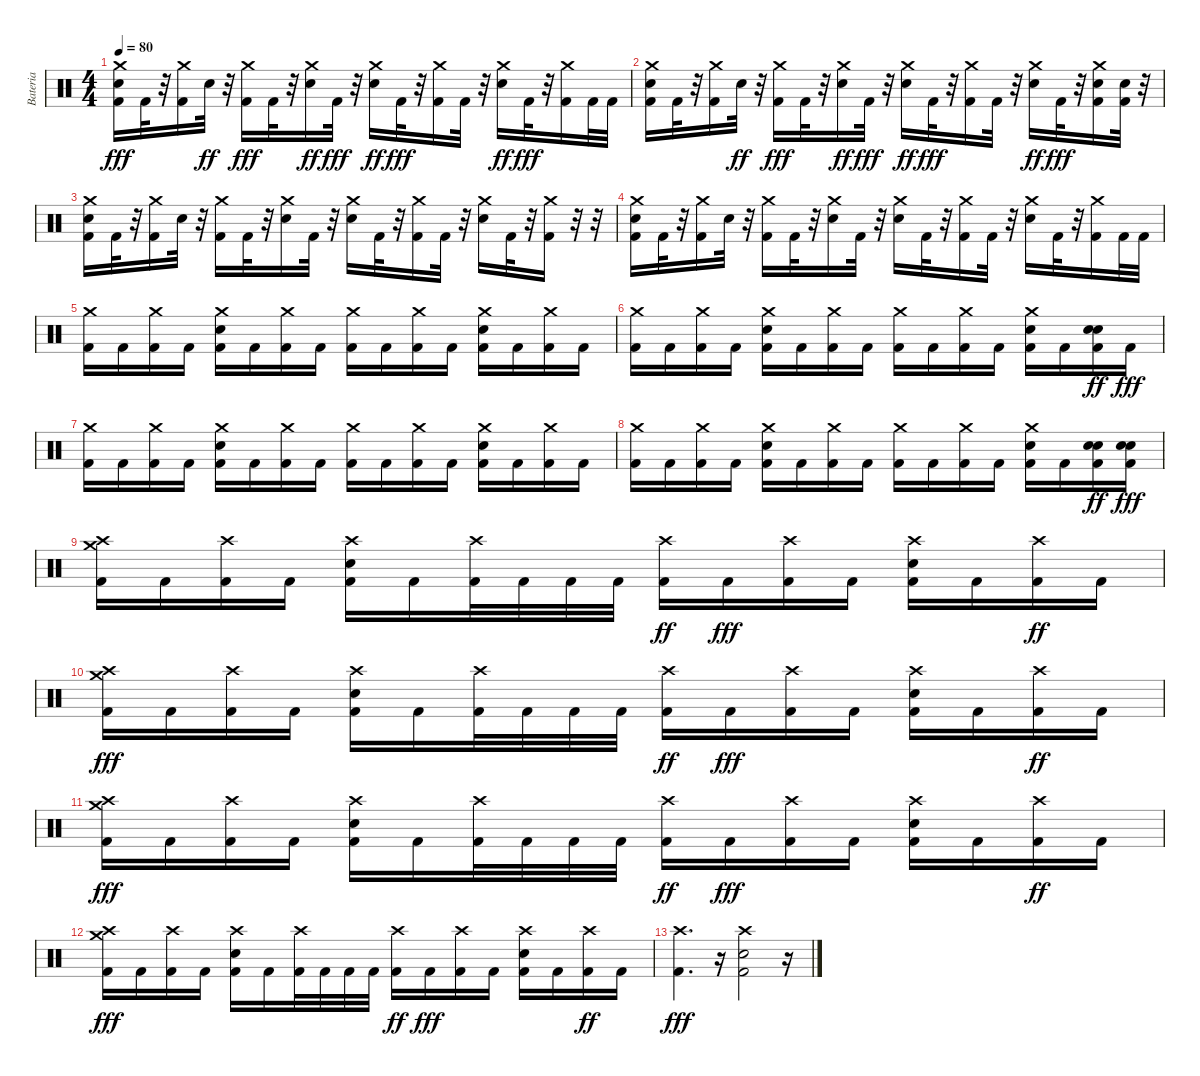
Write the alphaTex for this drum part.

\track ("Bateria" "Bateria") {instrument percussion}
\staff {score}
\articulation defaults
\ts (4 4)
\tempo 80
\clef neutral
\ks c
("Crash medium (hit)" "Electric Snare (hit)" "Kick (hit) 2").16{dy fff} "Kick (hit) 2".32 r.32 ("Crash medium (hit)" "Kick (hit) 2").16 "Electric Snare (hit)".32{dy ff} r.32 ("Crash medium (hit)" "Kick (hit) 2").16{dy fff} "Kick (hit) 2".32 r.32 ("Crash medium (hit)" "Electric Snare (hit)").16{dy ff} "Kick (hit) 2".32{dy fff} r.32 ("Crash medium (hit)" "Electric Snare (hit)").16{dy ff} "Kick (hit) 2".32{dy fff} r.32 ("Crash medium (hit)" "Kick (hit) 2").16 "Kick (hit) 2".32 r.32 ("Crash medium (hit)" "Electric Snare (hit)").16{dy ff} "Kick (hit) 2".32{dy fff} r.32 ("Crash medium (hit)" "Kick (hit) 2").16 "Kick (hit) 2".32 "Kick (hit) 2".32 |
("Crash medium (hit)" "Electric Snare (hit)" "Kick (hit) 2").16 "Kick (hit) 2".32 r.32 ("Crash medium (hit)" "Kick (hit) 2").16 "Electric Snare (hit)".32{dy ff} r.32 ("Crash medium (hit)" "Kick (hit) 2").16{dy fff} "Kick (hit) 2".32 r.32 ("Crash medium (hit)" "Electric Snare (hit)").16{dy ff} "Kick (hit) 2".32{dy fff} r.32 ("Crash medium (hit)" "Electric Snare (hit)").16{dy ff} "Kick (hit) 2".32{dy fff} r.32 ("Crash medium (hit)" "Kick (hit) 2").16 "Kick (hit) 2".32 r.32 ("Crash medium (hit)" "Electric Snare (hit)").16{dy ff} "Kick (hit) 2".32{dy fff} r.32 ("Crash medium (hit)" "Electric Snare (hit)" "Kick (hit) 2").16 ("Electric Snare (hit)" "Kick (hit) 2").32 r.32 |
("Crash medium (hit)" "Electric Snare (hit)" "Kick (hit) 2").16 "Kick (hit) 2".32 r.32 ("Crash medium (hit)" "Kick (hit) 2").16 "Electric Snare (hit)".32 r.32 ("Crash medium (hit)" "Kick (hit) 2").16 "Kick (hit) 2".32 r.32 ("Crash medium (hit)" "Electric Snare (hit)").16 "Kick (hit) 2".32 r.32 ("Crash medium (hit)" "Electric Snare (hit)").16 "Kick (hit) 2".32 r.32 ("Crash medium (hit)" "Kick (hit) 2").16 "Kick (hit) 2".32 r.32 ("Crash medium (hit)" "Electric Snare (hit)").16 "Kick (hit) 2".32 r.32 ("Crash medium (hit)" "Kick (hit) 2").16 r.32 r.32 |
("Crash medium (hit)" "Electric Snare (hit)" "Kick (hit) 2").16 "Kick (hit) 2".32 r.32 ("Crash medium (hit)" "Kick (hit) 2").16 "Electric Snare (hit)".32 r.32 ("Crash medium (hit)" "Kick (hit) 2").16 "Kick (hit) 2".32 r.32 ("Crash medium (hit)" "Electric Snare (hit)").16 "Kick (hit) 2".32 r.32 ("Crash medium (hit)" "Electric Snare (hit)").16 "Kick (hit) 2".32 r.32 ("Crash medium (hit)" "Kick (hit) 2").16 "Kick (hit) 2".32 r.32 ("Crash medium (hit)" "Electric Snare (hit)").16 "Kick (hit) 2".32 r.32 ("Crash medium (hit)" "Kick (hit) 2").16 "Kick (hit) 2".32 "Kick (hit) 2".32 |
("Crash medium (hit)" "Kick (hit) 2").16 "Kick (hit) 2".16 ("Crash medium (hit)" "Kick (hit) 2").16 "Kick (hit) 2".16 ("Crash medium (hit)" "Electric Snare (hit)" "Kick (hit) 2").16 "Kick (hit) 2".16 ("Crash medium (hit)" "Kick (hit) 2").16 "Kick (hit) 2".16 ("Crash medium (hit)" "Kick (hit) 2").16 "Kick (hit) 2".16 ("Crash medium (hit)" "Kick (hit) 2").16 "Kick (hit) 2".16 ("Crash medium (hit)" "Electric Snare (hit)" "Kick (hit) 2").16 "Kick (hit) 2".16 ("Crash medium (hit)" "Kick (hit) 2").16 "Kick (hit) 2".16 |
("Crash medium (hit)" "Kick (hit) 2").16 "Kick (hit) 2".16 ("Crash medium (hit)" "Kick (hit) 2").16 "Kick (hit) 2".16 ("Crash medium (hit)" "Electric Snare (hit)" "Kick (hit) 2").16 "Kick (hit) 2".16 ("Crash medium (hit)" "Kick (hit) 2").16 "Kick (hit) 2".16 ("Crash medium (hit)" "Kick (hit) 2").16 "Kick (hit) 2".16 ("Crash medium (hit)" "Kick (hit) 2").16 "Kick (hit) 2".16 ("Crash medium (hit)" "Electric Snare (hit)" "Kick (hit) 2").16 "Kick (hit) 2".16 ("Electric Snare (hit)" "Electric Snare (hit)" "Kick (hit) 2").16{dy ff} "Kick (hit) 2".16{dy fff} |
("Crash medium (hit)" "Kick (hit) 2").16 "Kick (hit) 2".16 ("Crash medium (hit)" "Kick (hit) 2").16 "Kick (hit) 2".16 ("Crash medium (hit)" "Electric Snare (hit)" "Kick (hit) 2").16 "Kick (hit) 2".16 ("Crash medium (hit)" "Kick (hit) 2").16 "Kick (hit) 2".16 ("Crash medium (hit)" "Kick (hit) 2").16 "Kick (hit) 2".16 ("Crash medium (hit)" "Kick (hit) 2").16 "Kick (hit) 2".16 ("Crash medium (hit)" "Electric Snare (hit)" "Kick (hit) 2").16 "Kick (hit) 2".16 ("Crash medium (hit)" "Kick (hit) 2").16 "Kick (hit) 2".16 |
("Crash medium (hit)" "Kick (hit) 2").16 "Kick (hit) 2".16 ("Crash medium (hit)" "Kick (hit) 2").16 "Kick (hit) 2".16 ("Crash medium (hit)" "Electric Snare (hit)" "Kick (hit) 2").16 "Kick (hit) 2".16 ("Crash medium (hit)" "Kick (hit) 2").16 "Kick (hit) 2".16 ("Crash medium (hit)" "Kick (hit) 2").16 "Kick (hit) 2".16 ("Crash medium (hit)" "Kick (hit) 2").16 "Kick (hit) 2".16 ("Crash medium (hit)" "Electric Snare (hit)" "Kick (hit) 2").16 "Kick (hit) 2".16 ("Electric Snare (hit)" "Electric Snare (hit)" "Kick (hit) 2").16{dy ff} ("Electric Snare (hit)" "Electric Snare (hit)" "Kick (hit) 2").16{dy fff} |
("Crash medium (hit)" "Crash high (hit)" "Kick (hit) 2").16 "Kick (hit) 2".16 ("Crash high (hit)" "Kick (hit) 2").16 "Kick (hit) 2".16 ("Crash high (hit)" "Electric Snare (hit)" "Kick (hit) 2").16 "Kick (hit) 2".16 ("Crash high (hit)" "Kick (hit) 2").32 "Kick (hit) 2".32 "Kick (hit) 2".32 "Kick (hit) 2".32 ("Crash high (hit)" "Kick (hit) 2").16{dy ff} "Kick (hit) 2".16{dy fff} ("Crash high (hit)" "Kick (hit) 2").16 "Kick (hit) 2".16 ("Crash high (hit)" "Electric Snare (hit)" "Kick (hit) 2").16 "Kick (hit) 2".16 ("Crash high (hit)" "Kick (hit) 2").16{dy ff} "Kick (hit) 2".16 |
("Crash medium (hit)" "Crash high (hit)" "Kick (hit) 2").16{dy fff} "Kick (hit) 2".16 ("Crash high (hit)" "Kick (hit) 2").16 "Kick (hit) 2".16 ("Crash high (hit)" "Electric Snare (hit)" "Kick (hit) 2").16 "Kick (hit) 2".16 ("Crash high (hit)" "Kick (hit) 2").32 "Kick (hit) 2".32 "Kick (hit) 2".32 "Kick (hit) 2".32 ("Crash high (hit)" "Kick (hit) 2").16{dy ff} "Kick (hit) 2".16{dy fff} ("Crash high (hit)" "Kick (hit) 2").16 "Kick (hit) 2".16 ("Crash high (hit)" "Electric Snare (hit)" "Kick (hit) 2").16 "Kick (hit) 2".16 ("Crash high (hit)" "Kick (hit) 2").16{dy ff} "Kick (hit) 2".16 |
("Crash medium (hit)" "Crash high (hit)" "Kick (hit) 2").16{dy fff} "Kick (hit) 2".16 ("Crash high (hit)" "Kick (hit) 2").16 "Kick (hit) 2".16 ("Crash high (hit)" "Electric Snare (hit)" "Kick (hit) 2").16 "Kick (hit) 2".16 ("Crash high (hit)" "Kick (hit) 2").32 "Kick (hit) 2".32 "Kick (hit) 2".32 "Kick (hit) 2".32 ("Crash high (hit)" "Kick (hit) 2").16{dy ff} "Kick (hit) 2".16{dy fff} ("Crash high (hit)" "Kick (hit) 2").16 "Kick (hit) 2".16 ("Crash high (hit)" "Electric Snare (hit)" "Kick (hit) 2").16 "Kick (hit) 2".16 ("Crash high (hit)" "Kick (hit) 2").16{dy ff} "Kick (hit) 2".16 |
("Crash medium (hit)" "Crash high (hit)" "Kick (hit) 2").16{dy fff} "Kick (hit) 2".16 ("Crash high (hit)" "Kick (hit) 2").16 "Kick (hit) 2".16 ("Crash high (hit)" "Electric Snare (hit)" "Kick (hit) 2").16 "Kick (hit) 2".16 ("Crash high (hit)" "Kick (hit) 2").32 "Kick (hit) 2".32 "Kick (hit) 2".32 "Kick (hit) 2".32 ("Crash high (hit)" "Kick (hit) 2").16{dy ff} "Kick (hit) 2".16{dy fff} ("Crash high (hit)" "Kick (hit) 2").16 "Kick (hit) 2".16 ("Crash high (hit)" "Electric Snare (hit)" "Kick (hit) 2").16 "Kick (hit) 2".16 ("Crash high (hit)" "Kick (hit) 2").16{dy ff} "Kick (hit) 2".16 |
("Crash high (hit)" "Kick (hit) 2").4{d dy fff} r.16 ("Crash high (hit)" "Electric Snare (hit)" "Kick (hit) 2").2 r.16
